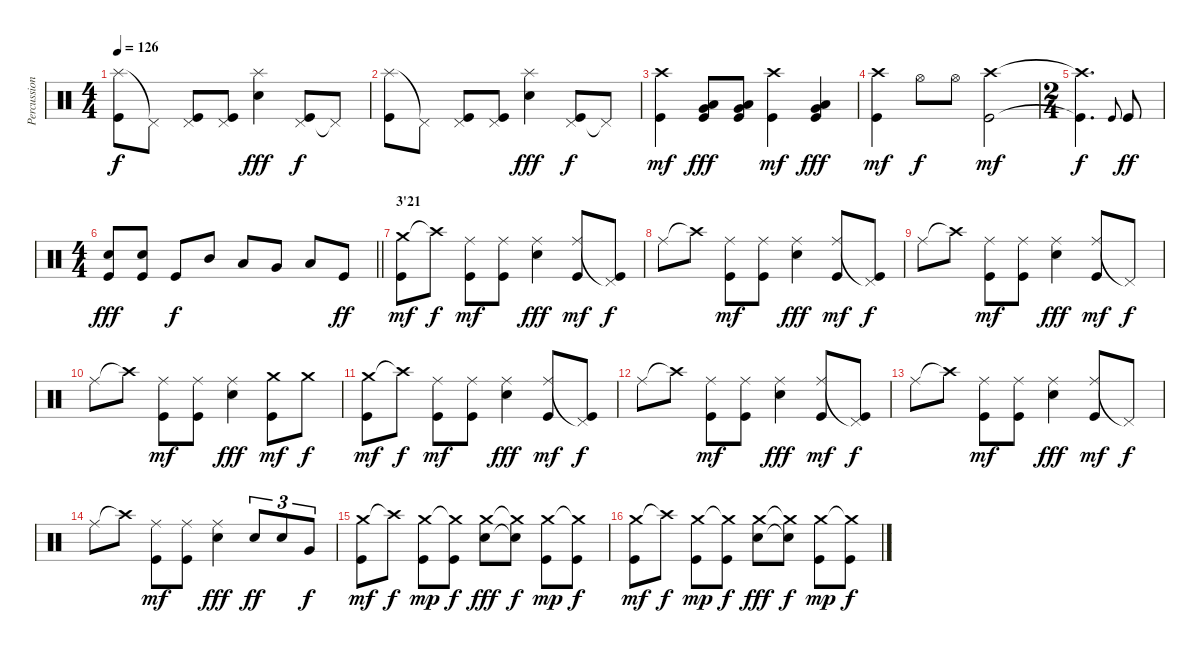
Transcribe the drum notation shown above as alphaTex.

\track ("Percussions" "Percussion") {instrument percussion}
\staff {score}
\articulation defaults
\ts (4 4)
\tempo 126
\clef neutral
\ks c
("Splash (hit)" "Kick (hit)").8{dy f} "Pedal Hi-Hat (hit)"{t}.8 ("Pedal Hi-Hat (hit)" "Kick (hit)").8 ("Pedal Hi-Hat (hit)" "Kick (hit)").8 ("Splash (hit)" "Snare (hit) 2").4{dy fff} ("Pedal Hi-Hat (hit)" "Kick (hit)").8{dy f} "Pedal Hi-Hat (hit)"{t}.8 |
("Splash (hit)" "Kick (hit)").8 "Pedal Hi-Hat (hit)"{t}.8 ("Pedal Hi-Hat (hit)" "Kick (hit)").8 ("Pedal Hi-Hat (hit)" "Kick (hit)").8 ("Splash (hit)" "Snare (hit) 2").4{dy fff} ("Pedal Hi-Hat (hit)" "Kick (hit)").8{dy f} "Pedal Hi-Hat (hit)"{t}.8 |
("Crash high (hit)" "Kick (hit)").4{dy mf} ("Very Low Tom (hit)" "Low Floor Tom (hit)" "Kick (hit)").8{dy fff} ("Very Low Tom (hit)" "Low Floor Tom (hit)" "Kick (hit)").8 ("Crash high (hit)" "Kick (hit)").4{dy mf} ("Very Low Tom (hit)" "Low Floor Tom (hit)" "Kick (hit)").4{dy fff} |
("Crash high (hit)" "Kick (hit)").4{dy mf} "Hi-Hat (open)".8{dy f} "Hi-Hat (open)".8 ("Crash high (hit)" "Kick (hit)").2{dy mf} |
\ts (2 4)
("Crash high (hit)"{t} "Kick (hit)"{t}).4{d dy f} "Kick (hit)".8{gr onbeat} "Kick (hit)".8{dy ff} |
\ts (4 4)
\barLineRight lightlight
("Snare (hit) 2" "Kick (hit)").8{dy fff} ("Snare (hit) 2" "Kick (hit)").8 "Kick (hit)".8{dy f} "Mid Tom (hit)".8 "Low Tom (hit)".8 "Very Low Tom (hit)".8 "Low Floor Tom (hit)".8 "Kick (hit)".8{dy ff} |
\section ("" "3'21")
("Crash medium (hit)" "Kick (hit)").8{dy mf} "Crash high (hit)"{t}.8{dy f} ("Ride (middle)" "Kick (hit)").8{dy mf} ("Ride (middle)" "Kick (hit)").8 ("Ride (middle)" "Snare (hit) 2").4{dy fff} ("Ride (middle)" "Kick (hit)").8{dy mf} ("Pedal Hi-Hat (hit)"{t} "Kick (hit)").8{dy f} |
"Ride (middle)".8 "Crash high (hit)"{t}.8 ("Ride (middle)" "Kick (hit)").8{dy mf} ("Ride (middle)" "Kick (hit)").8 ("Ride (middle)" "Snare (hit) 2").4{dy fff} ("Ride (middle)" "Kick (hit)").8{dy mf} ("Pedal Hi-Hat (hit)"{t} "Kick (hit)").8{dy f} |
"Ride (middle)".8 "Crash high (hit)"{t}.8 ("Ride (middle)" "Kick (hit)").8{dy mf} ("Ride (middle)" "Kick (hit)").8 ("Ride (middle)" "Snare (hit) 2").4{dy fff} ("Ride (middle)" "Kick (hit)").8{dy mf} "Pedal Hi-Hat (hit)"{t}.8{dy f} |
"Ride (middle)".8 "Crash high (hit)"{t}.8 ("Ride (middle)" "Kick (hit)").8{dy mf} ("Ride (middle)" "Kick (hit)").8 ("Ride (middle)" "Snare (hit) 2").4{dy fff} ("Crash medium (hit)" "Kick (hit)").8{dy mf} "Crash medium (hit)".8{dy f} |
("Crash medium (hit)" "Kick (hit)").8{dy mf} "Crash high (hit)"{t}.8{dy f} ("Ride (middle)" "Kick (hit)").8{dy mf} ("Ride (middle)" "Kick (hit)").8 ("Ride (middle)" "Snare (hit) 2").4{dy fff} ("Ride (middle)" "Kick (hit)").8{dy mf} ("Pedal Hi-Hat (hit)"{t} "Kick (hit)").8{dy f} |
"Ride (middle)".8 "Crash high (hit)"{t}.8 ("Ride (middle)" "Kick (hit)").8{dy mf} ("Ride (middle)" "Kick (hit)").8 ("Ride (middle)" "Snare (hit) 2").4{dy fff} ("Ride (middle)" "Kick (hit)").8{dy mf} ("Pedal Hi-Hat (hit)"{t} "Kick (hit)").8{dy f} |
"Ride (middle)".8 "Crash high (hit)"{t}.8 ("Ride (middle)" "Kick (hit)").8{dy mf} ("Ride (middle)" "Kick (hit)").8 ("Ride (middle)" "Snare (hit) 2").4{dy fff} ("Ride (middle)" "Kick (hit)").8{dy mf} "Pedal Hi-Hat (hit)"{t}.8{dy f} |
"Ride (middle)".8 "Crash high (hit)"{t}.8 ("Ride (middle)" "Kick (hit)").8{dy mf} ("Ride (middle)" "Kick (hit)").8 ("Ride (middle)" "Snare (hit) 2").4{dy fff} "Snare (hit) 2".8{tu (3 2) dy ff} "Snare (hit) 2".8{tu (3 2)} "Very Low Tom (hit)".8{tu (3 2) dy f} |
("Crash medium (hit)" "Kick (hit)").8{dy mf} "Crash high (hit)"{t}.8{dy f} ("Crash medium (hit)" "Kick (hit)").8{dy mp} ("Crash medium (hit)"{t} "Kick (hit)").8{dy f} ("Crash medium (hit)" "Snare (hit) 2").8{dy fff} ("Crash medium (hit)"{t} "Snare (hit) 2"{t}).8{dy f} ("Crash medium (hit)" "Kick (hit)").8{dy mp} ("Crash medium (hit)"{t} "Kick (hit)").8{dy f} |
("Crash medium (hit)" "Kick (hit)").8{dy mf} "Crash high (hit)"{t}.8{dy f} ("Crash medium (hit)" "Kick (hit)").8{dy mp} ("Crash medium (hit)"{t} "Kick (hit)").8{dy f} ("Crash medium (hit)" "Snare (hit) 2").8{dy fff} ("Crash medium (hit)"{t} "Snare (hit) 2"{t}).8{dy f} ("Crash medium (hit)" "Kick (hit)").8{dy mp} ("Crash medium (hit)"{t} "Kick (hit)").8{dy f}
